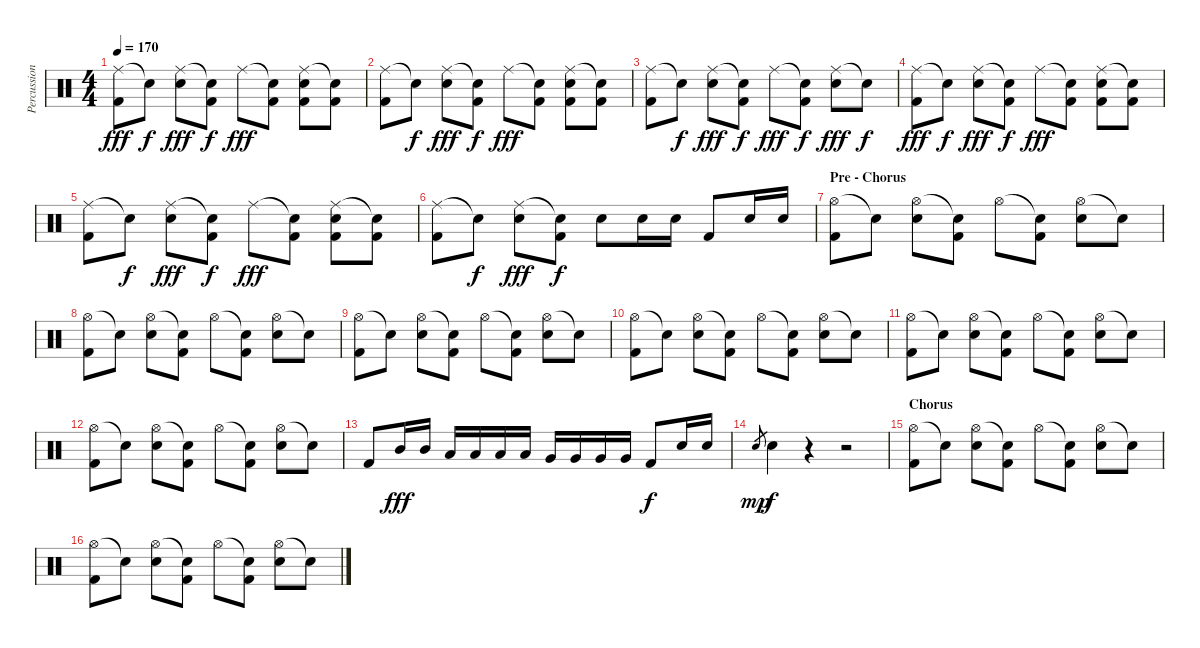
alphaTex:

\track ("Percussions" "Percussion") {instrument percussion}
\staff {score}
\articulation defaults
\ts (4 4)
\tempo 170
\clef neutral
\ks c
("Ride (middle)" "Kick (hit) 2").8{dy fff} "Snare (hit)"{t}.8{dy f} ("Ride (middle)" "Snare (hit) 2").8{dy fff} ("Snare (hit)"{t} "Kick (hit) 2").8{dy f} "Ride (middle)".8{dy fff} ("Snare (hit)"{t} "Kick (hit) 2").8 ("Ride (middle)" "Snare (hit) 2" "Kick (hit) 2").8 ("Snare (hit)"{t} "Kick (hit) 2").8 |
("Ride (middle)" "Kick (hit) 2").8 "Snare (hit)"{t}.8{dy f} ("Ride (middle)" "Snare (hit) 2").8{dy fff} ("Snare (hit)"{t} "Kick (hit) 2").8{dy f} "Ride (middle)".8{dy fff} ("Snare (hit)"{t} "Kick (hit) 2").8 ("Ride (middle)" "Snare (hit) 2" "Kick (hit) 2").8 ("Snare (hit)"{t} "Kick (hit) 2").8 |
("Ride (middle)" "Kick (hit) 2").8 "Snare (hit)"{t}.8{dy f} ("Ride (middle)" "Snare (hit) 2").8{dy fff} ("Snare (hit)"{t} "Kick (hit) 2").8{dy f} "Ride (middle)".8{dy fff} ("Snare (hit)"{t} "Kick (hit) 2").8{dy f} ("Ride (middle)" "Snare (hit) 2").8{dy fff} "Snare (hit)"{t}.8{dy f} |
("Ride (middle)" "Kick (hit) 2").8{dy fff} "Snare (hit)"{t}.8{dy f} ("Ride (middle)" "Snare (hit) 2").8{dy fff} ("Snare (hit)"{t} "Kick (hit) 2").8{dy f} "Ride (middle)".8{dy fff} ("Snare (hit)"{t} "Kick (hit) 2").8 ("Ride (middle)" "Snare (hit) 2" "Kick (hit) 2").8 ("Snare (hit)"{t} "Kick (hit) 2").8 |
("Ride (middle)" "Kick (hit) 2").8 "Snare (hit)"{t}.8{dy f} ("Ride (middle)" "Snare (hit) 2").8{dy fff} ("Snare (hit)"{t} "Kick (hit) 2").8{dy f} "Ride (middle)".8{dy fff} ("Snare (hit)"{t} "Kick (hit) 2").8 ("Ride (middle)" "Snare (hit) 2" "Kick (hit) 2").8 ("Snare (hit)"{t} "Kick (hit) 2").8 |
("Ride (middle)" "Kick (hit) 2").8 "Snare (hit)"{t}.8{dy f} ("Ride (middle)" "Snare (hit) 2").8{dy fff} ("Snare (hit)"{t} "Kick (hit) 2").8{dy f} "Snare (hit) 2".8 "Snare (hit) 2".16 "Snare (hit) 2".16 "Kick (hit) 2".8 "Snare (hit) 2".16 "Snare (hit) 2".16 |
\section ("" "Pre - Chorus")
("Hi-Hat (open)" "Kick (hit) 2").8 "Snare (hit)"{t}.8 ("Hi-Hat (open)" "Snare (hit) 2").8 ("Snare (hit)"{t} "Kick (hit) 2").8 "Hi-Hat (open)".8 ("Snare (hit)"{t} "Kick (hit) 2").8 ("Hi-Hat (open)" "Snare (hit) 2").8 "Snare (hit)"{t}.8 |
("Hi-Hat (open)" "Kick (hit) 2").8 "Snare (hit)"{t}.8 ("Hi-Hat (open)" "Snare (hit) 2").8 ("Snare (hit)"{t} "Kick (hit) 2").8 "Hi-Hat (open)".8 ("Snare (hit)"{t} "Kick (hit) 2").8 ("Hi-Hat (open)" "Snare (hit) 2").8 "Snare (hit)"{t}.8 |
("Hi-Hat (open)" "Kick (hit) 2").8 "Snare (hit)"{t}.8 ("Hi-Hat (open)" "Snare (hit) 2").8 ("Snare (hit)"{t} "Kick (hit) 2").8 "Hi-Hat (open)".8 ("Snare (hit)"{t} "Kick (hit) 2").8 ("Hi-Hat (open)" "Snare (hit) 2").8 "Snare (hit)"{t}.8 |
("Hi-Hat (open)" "Kick (hit) 2").8 "Snare (hit)"{t}.8 ("Hi-Hat (open)" "Snare (hit) 2").8 ("Snare (hit)"{t} "Kick (hit) 2").8 "Hi-Hat (open)".8 ("Snare (hit)"{t} "Kick (hit) 2").8 ("Hi-Hat (open)" "Snare (hit) 2").8 "Snare (hit)"{t}.8 |
("Hi-Hat (open)" "Kick (hit) 2").8 "Snare (hit)"{t}.8 ("Hi-Hat (open)" "Snare (hit) 2").8 ("Snare (hit)"{t} "Kick (hit) 2").8 "Hi-Hat (open)".8 ("Snare (hit)"{t} "Kick (hit) 2").8 ("Hi-Hat (open)" "Snare (hit) 2").8 "Snare (hit)"{t}.8 |
("Hi-Hat (open)" "Kick (hit) 2").8 "Snare (hit)"{t}.8 ("Hi-Hat (open)" "Snare (hit) 2").8 ("Snare (hit)"{t} "Kick (hit) 2").8 "Hi-Hat (open)".8 ("Snare (hit)"{t} "Kick (hit) 2").8 ("Hi-Hat (open)" "Snare (hit) 2").8 "Snare (hit)"{t}.8 |
"Kick (hit) 2".8 "Mid Tom (hit)".16{dy fff} "Mid Tom (hit)".16 "Low Tom (hit)".16 "Low Tom (hit)".16 "Low Tom (hit)".16 "Low Tom (hit)".16 "Very Low Tom (hit)".16 "Very Low Tom (hit)".16 "Very Low Tom (hit)".16 "Very Low Tom (hit)".16 "Kick (hit) 2".8{dy f} "Snare (hit) 2".16 "Snare (hit) 2".16 |
"Snare (hit) 2".8{gr dy mp} "Snare (hit) 2".4{dy f} r.4 r.2 |
\section ("" "Chorus")
("Hi-Hat (open)" "Kick (hit) 2").8 "Snare (hit)"{t}.8 ("Hi-Hat (open)" "Snare (hit) 2").8 ("Snare (hit)"{t} "Kick (hit) 2").8 "Hi-Hat (open)".8 ("Snare (hit)"{t} "Kick (hit) 2").8 ("Hi-Hat (open)" "Snare (hit) 2").8 "Snare (hit)"{t}.8 |
("Hi-Hat (open)" "Kick (hit) 2").8 "Snare (hit)"{t}.8 ("Hi-Hat (open)" "Snare (hit) 2").8 ("Snare (hit)"{t} "Kick (hit) 2").8 "Hi-Hat (open)".8 ("Snare (hit)"{t} "Kick (hit) 2").8 ("Hi-Hat (open)" "Snare (hit) 2").8 "Snare (hit)"{t}.8
